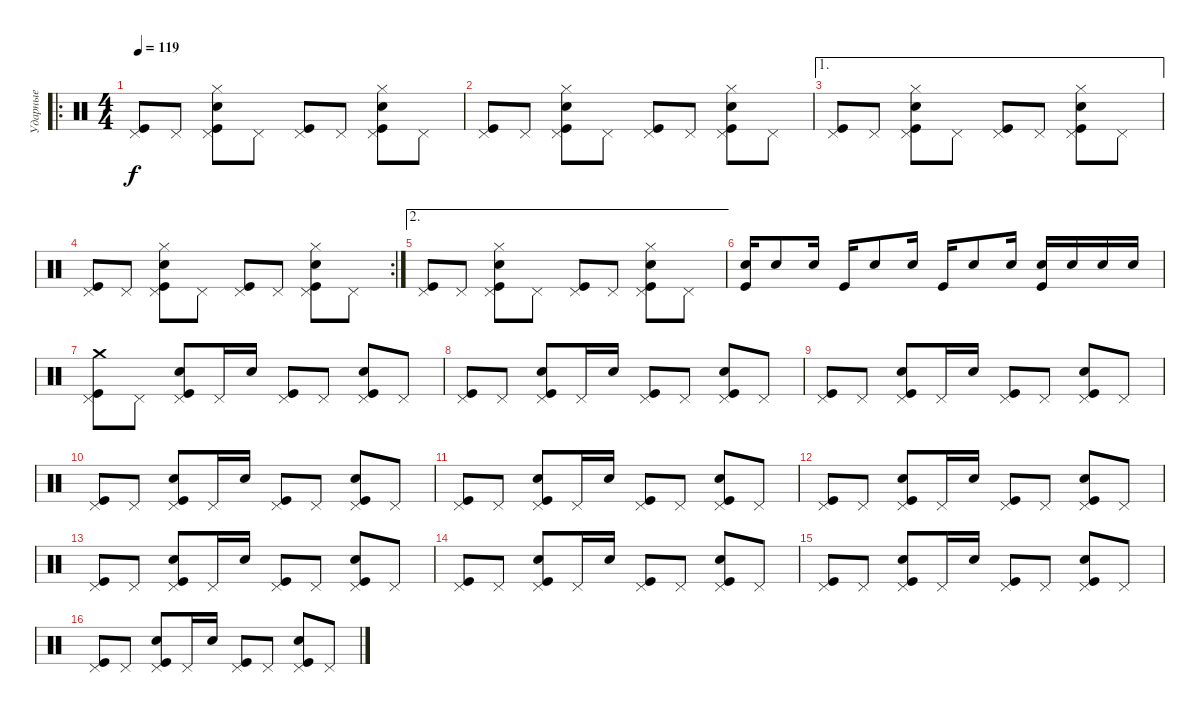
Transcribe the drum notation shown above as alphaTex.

\track ("Ударные" "Ударные") {instrument percussion}
\staff {score}
\articulation defaults
\ro
\ts (4 4)
\tempo 119
\clef neutral
\ks c
("Kick (hit)" "Pedal Hi-Hat (hit)").8{dy f} "Pedal Hi-Hat (hit)".8 ("Kick (hit)" "Pedal Hi-Hat (hit)" "Electric Snare (hit)" "Hi-Hat (closed)").8 "Pedal Hi-Hat (hit)".8 ("Kick (hit)" "Pedal Hi-Hat (hit)").8 "Pedal Hi-Hat (hit)".8 ("Kick (hit)" "Pedal Hi-Hat (hit)" "Electric Snare (hit)" "Hi-Hat (closed)").8 "Pedal Hi-Hat (hit)".8 |
("Kick (hit)" "Pedal Hi-Hat (hit)").8 "Pedal Hi-Hat (hit)".8 ("Kick (hit)" "Pedal Hi-Hat (hit)" "Electric Snare (hit)" "Hi-Hat (closed)").8 "Pedal Hi-Hat (hit)".8 ("Kick (hit)" "Pedal Hi-Hat (hit)").8 "Pedal Hi-Hat (hit)".8 ("Kick (hit)" "Pedal Hi-Hat (hit)" "Electric Snare (hit)" "Hi-Hat (closed)").8 "Pedal Hi-Hat (hit)".8 |
\ae 1
("Kick (hit)" "Pedal Hi-Hat (hit)").8 "Pedal Hi-Hat (hit)".8 ("Kick (hit)" "Pedal Hi-Hat (hit)" "Electric Snare (hit)" "Hi-Hat (closed)").8 "Pedal Hi-Hat (hit)".8 ("Kick (hit)" "Pedal Hi-Hat (hit)").8 "Pedal Hi-Hat (hit)".8 ("Kick (hit)" "Pedal Hi-Hat (hit)" "Electric Snare (hit)" "Hi-Hat (closed)").8 "Pedal Hi-Hat (hit)".8 |
\rc 2
("Kick (hit)" "Pedal Hi-Hat (hit)").8 "Pedal Hi-Hat (hit)".8 ("Kick (hit)" "Pedal Hi-Hat (hit)" "Electric Snare (hit)" "Hi-Hat (closed)").8 "Pedal Hi-Hat (hit)".8 ("Kick (hit)" "Pedal Hi-Hat (hit)").8 "Pedal Hi-Hat (hit)".8 ("Kick (hit)" "Pedal Hi-Hat (hit)" "Electric Snare (hit)" "Hi-Hat (closed)").8 "Pedal Hi-Hat (hit)".8 |
\ae 2
("Kick (hit)" "Pedal Hi-Hat (hit)").8 "Pedal Hi-Hat (hit)".8 ("Kick (hit)" "Pedal Hi-Hat (hit)" "Electric Snare (hit)" "Hi-Hat (closed)").8 "Pedal Hi-Hat (hit)".8 ("Kick (hit)" "Pedal Hi-Hat (hit)").8 "Pedal Hi-Hat (hit)".8 ("Kick (hit)" "Pedal Hi-Hat (hit)" "Electric Snare (hit)" "Hi-Hat (closed)").8 "Pedal Hi-Hat (hit)".8 |
("Kick (hit)" "Electric Snare (hit)").16 "Electric Snare (hit)".8 "Electric Snare (hit)".16 "Kick (hit)".16 "Electric Snare (hit)".8 "Electric Snare (hit)".16 "Kick (hit)".16 "Electric Snare (hit)".8 "Electric Snare (hit)".16 ("Kick (hit)" "Electric Snare (hit)").16 "Electric Snare (hit)".16 "Electric Snare (hit)".16 "Electric Snare (hit)".16 |
("Kick (hit)" "Pedal Hi-Hat (hit)" "Crash medium (hit)").8 "Pedal Hi-Hat (hit)".8 ("Kick (hit)" "Electric Snare (hit)" "Pedal Hi-Hat (hit)").8 "Pedal Hi-Hat (hit)".16 "Electric Snare (hit)".16 ("Kick (hit)" "Pedal Hi-Hat (hit)").8 "Pedal Hi-Hat (hit)".8 ("Kick (hit)" "Electric Snare (hit)" "Pedal Hi-Hat (hit)").8 "Pedal Hi-Hat (hit)".8 |
("Kick (hit)" "Pedal Hi-Hat (hit)").8 "Pedal Hi-Hat (hit)".8 ("Kick (hit)" "Electric Snare (hit)" "Pedal Hi-Hat (hit)").8 "Pedal Hi-Hat (hit)".16 "Electric Snare (hit)".16 ("Kick (hit)" "Pedal Hi-Hat (hit)").8 "Pedal Hi-Hat (hit)".8 ("Kick (hit)" "Electric Snare (hit)" "Pedal Hi-Hat (hit)").8 "Pedal Hi-Hat (hit)".8 |
("Kick (hit)" "Pedal Hi-Hat (hit)").8 "Pedal Hi-Hat (hit)".8 ("Kick (hit)" "Electric Snare (hit)" "Pedal Hi-Hat (hit)").8 "Pedal Hi-Hat (hit)".16 "Electric Snare (hit)".16 ("Kick (hit)" "Pedal Hi-Hat (hit)").8 "Pedal Hi-Hat (hit)".8 ("Kick (hit)" "Electric Snare (hit)" "Pedal Hi-Hat (hit)").8 "Pedal Hi-Hat (hit)".8 |
("Kick (hit)" "Pedal Hi-Hat (hit)").8 "Pedal Hi-Hat (hit)".8 ("Kick (hit)" "Electric Snare (hit)" "Pedal Hi-Hat (hit)").8 "Pedal Hi-Hat (hit)".16 "Electric Snare (hit)".16 ("Kick (hit)" "Pedal Hi-Hat (hit)").8 "Pedal Hi-Hat (hit)".8 ("Kick (hit)" "Electric Snare (hit)" "Pedal Hi-Hat (hit)").8 "Pedal Hi-Hat (hit)".8 |
("Kick (hit)" "Pedal Hi-Hat (hit)").8 "Pedal Hi-Hat (hit)".8 ("Kick (hit)" "Electric Snare (hit)" "Pedal Hi-Hat (hit)").8 "Pedal Hi-Hat (hit)".16 "Electric Snare (hit)".16 ("Kick (hit)" "Pedal Hi-Hat (hit)").8 "Pedal Hi-Hat (hit)".8 ("Kick (hit)" "Electric Snare (hit)" "Pedal Hi-Hat (hit)").8 "Pedal Hi-Hat (hit)".8 |
("Kick (hit)" "Pedal Hi-Hat (hit)").8 "Pedal Hi-Hat (hit)".8 ("Kick (hit)" "Electric Snare (hit)" "Pedal Hi-Hat (hit)").8 "Pedal Hi-Hat (hit)".16 "Electric Snare (hit)".16 ("Kick (hit)" "Pedal Hi-Hat (hit)").8 "Pedal Hi-Hat (hit)".8 ("Kick (hit)" "Electric Snare (hit)" "Pedal Hi-Hat (hit)").8 "Pedal Hi-Hat (hit)".8 |
("Kick (hit)" "Pedal Hi-Hat (hit)").8 "Pedal Hi-Hat (hit)".8 ("Kick (hit)" "Electric Snare (hit)" "Pedal Hi-Hat (hit)").8 "Pedal Hi-Hat (hit)".16 "Electric Snare (hit)".16 ("Kick (hit)" "Pedal Hi-Hat (hit)").8 "Pedal Hi-Hat (hit)".8 ("Kick (hit)" "Electric Snare (hit)" "Pedal Hi-Hat (hit)").8 "Pedal Hi-Hat (hit)".8 |
("Kick (hit)" "Pedal Hi-Hat (hit)").8 "Pedal Hi-Hat (hit)".8 ("Kick (hit)" "Electric Snare (hit)" "Pedal Hi-Hat (hit)").8 "Pedal Hi-Hat (hit)".16 "Electric Snare (hit)".16 ("Kick (hit)" "Pedal Hi-Hat (hit)").8 "Pedal Hi-Hat (hit)".8 ("Kick (hit)" "Electric Snare (hit)" "Pedal Hi-Hat (hit)").8 "Pedal Hi-Hat (hit)".8 |
("Kick (hit)" "Pedal Hi-Hat (hit)").8 "Pedal Hi-Hat (hit)".8 ("Kick (hit)" "Electric Snare (hit)" "Pedal Hi-Hat (hit)").8 "Pedal Hi-Hat (hit)".16 "Electric Snare (hit)".16 ("Kick (hit)" "Pedal Hi-Hat (hit)").8 "Pedal Hi-Hat (hit)".8 ("Kick (hit)" "Electric Snare (hit)" "Pedal Hi-Hat (hit)").8 "Pedal Hi-Hat (hit)".8 |
("Kick (hit)" "Pedal Hi-Hat (hit)").8 "Pedal Hi-Hat (hit)".8 ("Kick (hit)" "Electric Snare (hit)" "Pedal Hi-Hat (hit)").8 "Pedal Hi-Hat (hit)".16 "Electric Snare (hit)".16 ("Kick (hit)" "Pedal Hi-Hat (hit)").8 "Pedal Hi-Hat (hit)".8 ("Kick (hit)" "Electric Snare (hit)" "Pedal Hi-Hat (hit)").8 "Pedal Hi-Hat (hit)".8
